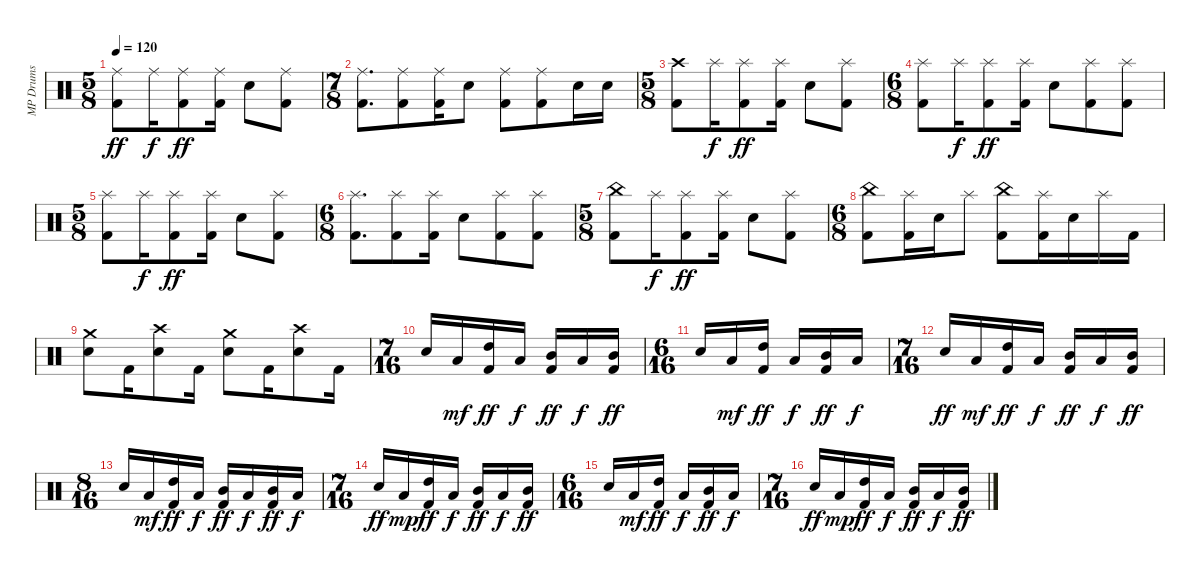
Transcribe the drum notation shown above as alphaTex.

\track ("MP Drums" "MP Drums") {instrument percussion}
\staff {score}
\articulation defaults
\ts (5 8)
\tempo 120
\clef neutral
\ks c
("Ride (middle)" "Kick (hit) 2").8{dy ff} "Ride (middle)".16{dy f} ("Ride (middle)" "Kick (hit) 2").8{dy ff} ("Ride (middle)" "Kick (hit) 2").16 "Snare (hit) 2".8 ("Ride (middle)" "Kick (hit) 2").8 |
\ts (7 8)
("Ride (middle)" "Kick (hit) 2").8{d} ("Ride (middle)" "Kick (hit) 2").8 ("Ride (middle)" "Kick (hit) 2").16 "Snare (hit) 2".8 ("Ride (middle)" "Kick (hit) 2").8 ("Ride (middle)" "Kick (hit) 2").8 "Snare (hit) 2".16 "Snare (hit) 2".16 |
\ts (5 8)
("Crash high (hit)" "Kick (hit) 2").8 "Splash (hit)".16{dy f} ("Splash (hit)" "Kick (hit) 2").8{dy ff} ("Splash (hit)" "Kick (hit) 2").16 "Snare (hit) 2".8 ("Splash (hit)" "Kick (hit) 2").8 |
\ts (6 8)
("Splash (hit)" "Kick (hit) 2").8 "Splash (hit)".16{dy f} ("Splash (hit)" "Kick (hit) 2").8{dy ff} ("Splash (hit)" "Kick (hit) 2").16 "Snare (hit) 2".8 ("Splash (hit)" "Kick (hit) 2").8 ("Splash (hit)" "Kick (hit) 2").8 |
\ts (5 8)
("Splash (hit)" "Kick (hit) 2").8 "Splash (hit)".16{dy f} ("Splash (hit)" "Kick (hit) 2").8{dy ff} ("Splash (hit)" "Kick (hit) 2").16 "Snare (hit) 2".8 ("Splash (hit)" "Kick (hit) 2").8 |
\ts (6 8)
("Splash (hit)" "Kick (hit) 2").8{d} ("Splash (hit)" "Kick (hit) 2").8 ("Splash (hit)" "Kick (hit) 2").16 "Snare (hit) 2".8 ("Splash (hit)" "Kick (hit) 2").8 ("Splash (hit)" "Kick (hit) 2").8 |
\ts (5 8)
("China (hit)" "Kick (hit) 2").8 "Splash (hit)".16{dy f} ("Splash (hit)" "Kick (hit) 2").8{dy ff} ("Splash (hit)" "Kick (hit) 2").16 "Snare (hit) 2".8 ("Splash (hit)" "Kick (hit) 2").8 |
\ts (6 8)
("China (hit)" "Kick (hit) 2").8 ("Splash (hit)" "Kick (hit) 2").16 "Snare (hit) 2".16 "Splash (hit)".8 ("China (hit)" "Kick (hit) 2").8 ("Splash (hit)" "Kick (hit) 2").16 "Snare (hit) 2".16 "Splash (hit)".16 "Kick (hit) 2".16 |
("Crash medium (hit)" "Snare (hit) 2").8 "Kick (hit) 2".16 ("Crash high (hit)" "Snare (hit) 2").8 "Kick (hit) 2".16 ("Crash medium (hit)" "Snare (hit) 2").8 "Kick (hit) 2".16 ("Crash high (hit)" "Snare (hit) 2").8 "Kick (hit) 2".16 |
\ts (7 16)
"Snare (hit) 2".16 "Low Tom (hit)".16{dy mf} ("High Tom (hit)" "Kick (hit) 2").16{dy ff} "Low Tom (hit)".16{dy f} ("Mid Tom (hit)" "Kick (hit) 2").16{dy ff} "Low Tom (hit)".16{dy f} ("Mid Tom (hit)" "Kick (hit) 2").16{dy ff} |
\ts (6 16)
"Snare (hit) 2".16 "Low Tom (hit)".16{dy mf} ("High Tom (hit)" "Kick (hit) 2").16{dy ff} "Low Tom (hit)".16{dy f} ("Mid Tom (hit)" "Kick (hit) 2").16{dy ff} "Low Tom (hit)".16{dy f} |
\ts (7 16)
"Snare (hit) 2".16{dy ff} "Low Tom (hit)".16{dy mf} ("High Tom (hit)" "Kick (hit) 2").16{dy ff} "Low Tom (hit)".16{dy f} ("Mid Tom (hit)" "Kick (hit) 2").16{dy ff} "Low Tom (hit)".16{dy f} ("Mid Tom (hit)" "Kick (hit) 2").16{dy ff} |
\ts (8 16)
"Snare (hit) 2".16 "Low Tom (hit)".16{dy mf} ("High Tom (hit)" "Kick (hit) 2").16{dy ff} "Low Tom (hit)".16{dy f} ("Mid Tom (hit)" "Kick (hit) 2").16{dy ff} "Low Tom (hit)".16{dy f} ("Mid Tom (hit)" "Kick (hit) 2").16{dy ff} "Low Tom (hit)".16{dy f} |
\ts (7 16)
"Snare (hit) 2".16{dy ff} "Low Tom (hit)".16{dy mp} ("High Tom (hit)" "Kick (hit) 2").16{dy ff} "Low Tom (hit)".16{dy f} ("Mid Tom (hit)" "Kick (hit) 2").16{dy ff} "Low Tom (hit)".16{dy f} ("Mid Tom (hit)" "Kick (hit) 2").16{dy ff} |
\ts (6 16)
"Snare (hit) 2".16 "Low Tom (hit)".16{dy mf} ("High Tom (hit)" "Kick (hit) 2").16{dy ff} "Low Tom (hit)".16{dy f} ("Mid Tom (hit)" "Kick (hit) 2").16{dy ff} "Low Tom (hit)".16{dy f} |
\ts (7 16)
"Snare (hit) 2".16{dy ff} "Low Tom (hit)".16{dy mp} ("High Tom (hit)" "Kick (hit) 2").16{dy ff} "Low Tom (hit)".16{dy f} ("Mid Tom (hit)" "Kick (hit) 2").16{dy ff} "Low Tom (hit)".16{dy f} ("Mid Tom (hit)" "Kick (hit) 2").16{dy ff}
